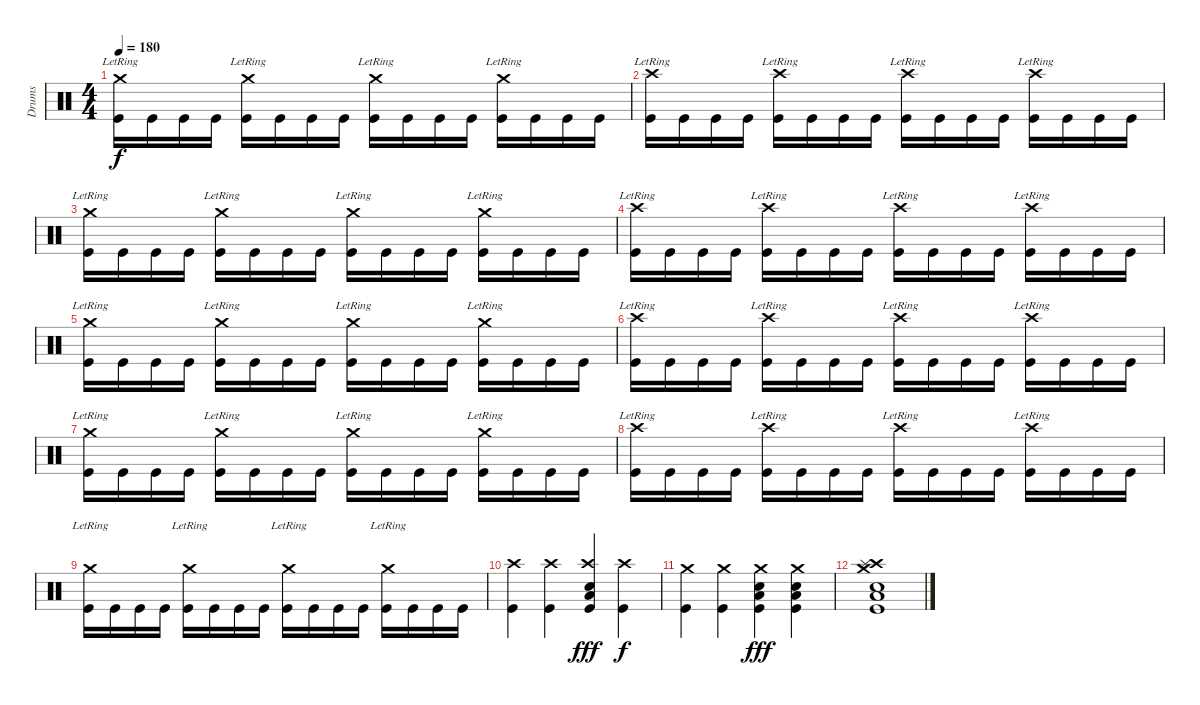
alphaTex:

\track ("Drums" "Drums") {instrument percussion}
\staff {score}
\articulation defaults
\ts (4 4)
\tempo 180
\clef neutral
\ks c
("Crash medium (hit)"{lr} "Kick (hit)").16{dy f} "Kick (hit)".16 "Kick (hit)".16 "Kick (hit)".16 ("Crash medium (hit)"{lr} "Kick (hit)").16 "Kick (hit)".16 "Kick (hit)".16 "Kick (hit)".16 ("Crash medium (hit)"{lr} "Kick (hit)").16 "Kick (hit)".16 "Kick (hit)".16 "Kick (hit)".16 ("Crash medium (hit)"{lr} "Kick (hit)").16 "Kick (hit)".16 "Kick (hit)".16 "Kick (hit)".16 |
("Crash high (hit)"{lr} "Kick (hit)").16 "Kick (hit)".16 "Kick (hit)".16 "Kick (hit)".16 ("Crash high (hit)"{lr} "Kick (hit)").16 "Kick (hit)".16 "Kick (hit)".16 "Kick (hit)".16 ("Crash high (hit)"{lr} "Kick (hit)").16 "Kick (hit)".16 "Kick (hit)".16 "Kick (hit)".16 ("Crash high (hit)"{lr} "Kick (hit)").16 "Kick (hit)".16 "Kick (hit)".16 "Kick (hit)".16 |
("Crash medium (hit)"{lr} "Kick (hit)").16 "Kick (hit)".16 "Kick (hit)".16 "Kick (hit)".16 ("Crash medium (hit)"{lr} "Kick (hit)").16 "Kick (hit)".16 "Kick (hit)".16 "Kick (hit)".16 ("Crash medium (hit)"{lr} "Kick (hit)").16 "Kick (hit)".16 "Kick (hit)".16 "Kick (hit)".16 ("Crash medium (hit)"{lr} "Kick (hit)").16 "Kick (hit)".16 "Kick (hit)".16 "Kick (hit)".16 |
("Crash high (hit)"{lr} "Kick (hit)").16 "Kick (hit)".16 "Kick (hit)".16 "Kick (hit)".16 ("Crash high (hit)"{lr} "Kick (hit)").16 "Kick (hit)".16 "Kick (hit)".16 "Kick (hit)".16 ("Crash high (hit)"{lr} "Kick (hit)").16 "Kick (hit)".16 "Kick (hit)".16 "Kick (hit)".16 ("Crash high (hit)"{lr} "Kick (hit)").16 "Kick (hit)".16 "Kick (hit)".16 "Kick (hit)".16 |
("Crash medium (hit)"{lr} "Kick (hit)").16 "Kick (hit)".16 "Kick (hit)".16 "Kick (hit)".16 ("Crash medium (hit)"{lr} "Kick (hit)").16 "Kick (hit)".16 "Kick (hit)".16 "Kick (hit)".16 ("Crash medium (hit)"{lr} "Kick (hit)").16 "Kick (hit)".16 "Kick (hit)".16 "Kick (hit)".16 ("Crash medium (hit)"{lr} "Kick (hit)").16 "Kick (hit)".16 "Kick (hit)".16 "Kick (hit)".16 |
("Crash high (hit)"{lr} "Kick (hit)").16 "Kick (hit)".16 "Kick (hit)".16 "Kick (hit)".16 ("Crash high (hit)"{lr} "Kick (hit)").16 "Kick (hit)".16 "Kick (hit)".16 "Kick (hit)".16 ("Crash high (hit)"{lr} "Kick (hit)").16 "Kick (hit)".16 "Kick (hit)".16 "Kick (hit)".16 ("Crash high (hit)"{lr} "Kick (hit)").16 "Kick (hit)".16 "Kick (hit)".16 "Kick (hit)".16 |
("Crash medium (hit)"{lr} "Kick (hit)").16 "Kick (hit)".16 "Kick (hit)".16 "Kick (hit)".16 ("Crash medium (hit)"{lr} "Kick (hit)").16 "Kick (hit)".16 "Kick (hit)".16 "Kick (hit)".16 ("Crash medium (hit)"{lr} "Kick (hit)").16 "Kick (hit)".16 "Kick (hit)".16 "Kick (hit)".16 ("Crash medium (hit)"{lr} "Kick (hit)").16 "Kick (hit)".16 "Kick (hit)".16 "Kick (hit)".16 |
("Crash high (hit)"{lr} "Kick (hit)").16 "Kick (hit)".16 "Kick (hit)".16 "Kick (hit)".16 ("Crash high (hit)"{lr} "Kick (hit)").16 "Kick (hit)".16 "Kick (hit)".16 "Kick (hit)".16 ("Crash high (hit)"{lr} "Kick (hit)").16 "Kick (hit)".16 "Kick (hit)".16 "Kick (hit)".16 ("Crash high (hit)"{lr} "Kick (hit)").16 "Kick (hit)".16 "Kick (hit)".16 "Kick (hit)".16 |
("Crash medium (hit)"{lr} "Kick (hit)").16 "Kick (hit)".16 "Kick (hit)".16 "Kick (hit)".16 ("Crash medium (hit)"{lr} "Kick (hit)").16 "Kick (hit)".16 "Kick (hit)".16 "Kick (hit)".16 ("Crash medium (hit)"{lr} "Kick (hit)").16 "Kick (hit)".16 "Kick (hit)".16 "Kick (hit)".16 ("Crash medium (hit)"{lr} "Kick (hit)").16 "Kick (hit)".16 "Kick (hit)".16 "Kick (hit)".16 |
("Crash high (hit)" "Kick (hit)").4 ("Crash high (hit)" "Kick (hit)").4 ("Crash high (hit)" "Electric Snare (hit)" "Low Tom (hit)" "Kick (hit)").4{dy fff} ("Crash high (hit)" "Kick (hit)").4{dy f} |
("Crash medium (hit)" "Kick (hit)").4 ("Crash medium (hit)" "Kick (hit)").4 ("Crash medium (hit)" "Electric Snare (hit)" "Low Tom (hit)" "Kick (hit)").4{dy fff} ("Crash medium (hit)" "Electric Snare (hit)" "Low Tom (hit)" "Kick (hit)").4 |
("Kick (hit)" "Crash high (hit)" "Splash (hit)" "Crash medium (hit)" "Electric Snare (hit)" "Low Tom (hit)").1
